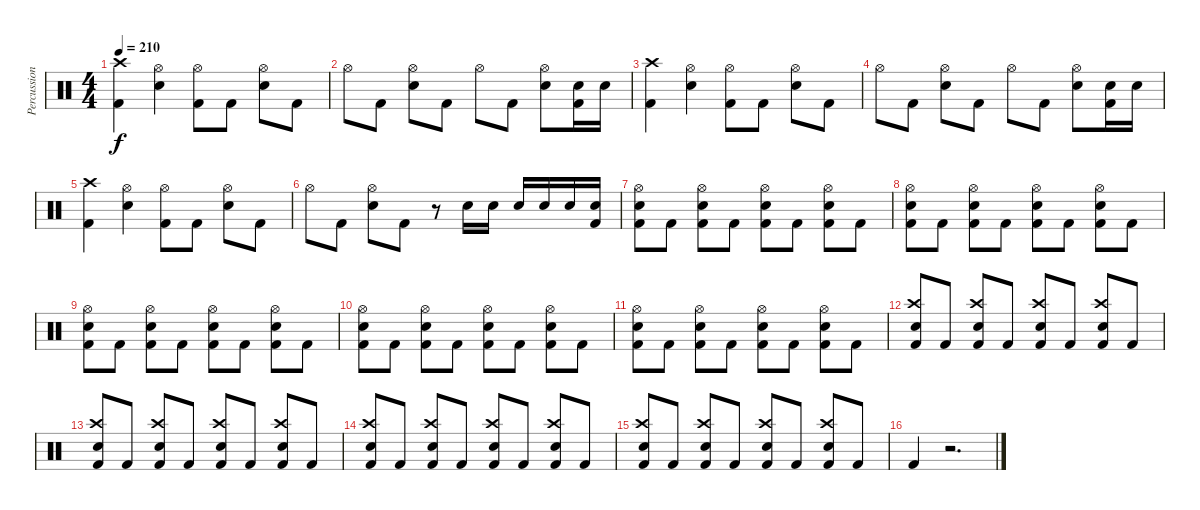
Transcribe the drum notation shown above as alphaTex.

\track ("Percussions" "Percussion") {instrument percussion}
\staff {score}
\articulation defaults
\ts (4 4)
\tempo 210
\clef neutral
\ks c
("Kick (hit) 2" "Crash high (hit)").4{dy f} ("Snare (hit) 2" "Hi-Hat (open)").4 ("Kick (hit) 2" "Hi-Hat (open)").8 "Kick (hit) 2".8 ("Snare (hit) 2" "Hi-Hat (open)").8 "Kick (hit) 2".8 |
"Hi-Hat (open)".8 "Kick (hit) 2".8 ("Snare (hit) 2" "Hi-Hat (open)").8 "Kick (hit) 2".8 "Hi-Hat (open)".8 "Kick (hit) 2".8 ("Snare (hit) 2" "Hi-Hat (open)").8 ("Kick (hit) 2" "Snare (hit) 2").16 "Snare (hit) 2".16 |
("Kick (hit) 2" "Crash high (hit)").4 ("Snare (hit) 2" "Hi-Hat (open)").4 ("Kick (hit) 2" "Hi-Hat (open)").8 "Kick (hit) 2".8 ("Snare (hit) 2" "Hi-Hat (open)").8 "Kick (hit) 2".8 |
"Hi-Hat (open)".8 "Kick (hit) 2".8 ("Snare (hit) 2" "Hi-Hat (open)").8 "Kick (hit) 2".8 "Hi-Hat (open)".8 "Kick (hit) 2".8 ("Snare (hit) 2" "Hi-Hat (open)").8 ("Kick (hit) 2" "Snare (hit) 2").16 "Snare (hit) 2".16 |
("Kick (hit) 2" "Crash high (hit)").4 ("Snare (hit) 2" "Hi-Hat (open)").4 ("Kick (hit) 2" "Hi-Hat (open)").8 "Kick (hit) 2".8 ("Snare (hit) 2" "Hi-Hat (open)").8 "Kick (hit) 2".8 |
"Hi-Hat (open)".8 "Kick (hit) 2".8 ("Snare (hit) 2" "Hi-Hat (open)").8 "Kick (hit) 2".8 r.8 "Snare (hit) 2".16 "Snare (hit) 2".16 "Snare (hit) 2".16 "Snare (hit) 2".16 "Snare (hit) 2".16 ("Kick (hit) 2" "Snare (hit) 2").16 |
("Kick (hit) 2" "Snare (hit) 2" "Hi-Hat (open)").8 "Kick (hit) 2".8 ("Kick (hit) 2" "Snare (hit) 2" "Hi-Hat (open)").8 "Kick (hit) 2".8 ("Kick (hit) 2" "Snare (hit) 2" "Hi-Hat (open)").8 "Kick (hit) 2".8 ("Kick (hit) 2" "Snare (hit) 2" "Hi-Hat (open)").8 "Kick (hit) 2".8 |
("Kick (hit) 2" "Snare (hit) 2" "Hi-Hat (open)").8 "Kick (hit) 2".8 ("Kick (hit) 2" "Snare (hit) 2" "Hi-Hat (open)").8 "Kick (hit) 2".8 ("Kick (hit) 2" "Snare (hit) 2" "Hi-Hat (open)").8 "Kick (hit) 2".8 ("Kick (hit) 2" "Snare (hit) 2" "Hi-Hat (open)").8 "Kick (hit) 2".8 |
("Kick (hit) 2" "Snare (hit) 2" "Hi-Hat (open)").8 "Kick (hit) 2".8 ("Kick (hit) 2" "Snare (hit) 2" "Hi-Hat (open)").8 "Kick (hit) 2".8 ("Kick (hit) 2" "Snare (hit) 2" "Hi-Hat (open)").8 "Kick (hit) 2".8 ("Kick (hit) 2" "Snare (hit) 2" "Hi-Hat (open)").8 "Kick (hit) 2".8 |
("Kick (hit) 2" "Snare (hit) 2" "Hi-Hat (open)").8 "Kick (hit) 2".8 ("Kick (hit) 2" "Snare (hit) 2" "Hi-Hat (open)").8 "Kick (hit) 2".8 ("Kick (hit) 2" "Snare (hit) 2" "Hi-Hat (open)").8 "Kick (hit) 2".8 ("Kick (hit) 2" "Snare (hit) 2" "Hi-Hat (open)").8 "Kick (hit) 2".8 |
("Kick (hit) 2" "Snare (hit) 2" "Hi-Hat (open)").8 "Kick (hit) 2".8 ("Kick (hit) 2" "Snare (hit) 2" "Hi-Hat (open)").8 "Kick (hit) 2".8 ("Kick (hit) 2" "Snare (hit) 2" "Hi-Hat (open)").8 "Kick (hit) 2".8 ("Kick (hit) 2" "Snare (hit) 2" "Hi-Hat (open)").8 "Kick (hit) 2".8 |
("Kick (hit) 2" "Snare (hit) 2" "Crash high (hit)").8 "Kick (hit) 2".8 ("Kick (hit) 2" "Snare (hit) 2" "Crash high (hit)").8 "Kick (hit) 2".8 ("Kick (hit) 2" "Snare (hit) 2" "Crash high (hit)").8 "Kick (hit) 2".8 ("Kick (hit) 2" "Snare (hit) 2" "Crash high (hit)").8 "Kick (hit) 2".8 |
("Kick (hit) 2" "Snare (hit) 2" "Crash high (hit)").8 "Kick (hit) 2".8 ("Kick (hit) 2" "Snare (hit) 2" "Crash high (hit)").8 "Kick (hit) 2".8 ("Kick (hit) 2" "Snare (hit) 2" "Crash high (hit)").8 "Kick (hit) 2".8 ("Kick (hit) 2" "Snare (hit) 2" "Crash high (hit)").8 "Kick (hit) 2".8 |
("Kick (hit) 2" "Snare (hit) 2" "Crash high (hit)").8 "Kick (hit) 2".8 ("Kick (hit) 2" "Snare (hit) 2" "Crash high (hit)").8 "Kick (hit) 2".8 ("Kick (hit) 2" "Snare (hit) 2" "Crash high (hit)").8 "Kick (hit) 2".8 ("Kick (hit) 2" "Snare (hit) 2" "Crash high (hit)").8 "Kick (hit) 2".8 |
("Kick (hit) 2" "Snare (hit) 2" "Crash high (hit)").8 "Kick (hit) 2".8 ("Kick (hit) 2" "Snare (hit) 2" "Crash high (hit)").8 "Kick (hit) 2".8 ("Kick (hit) 2" "Snare (hit) 2" "Crash high (hit)").8 "Kick (hit) 2".8 ("Kick (hit) 2" "Snare (hit) 2" "Crash high (hit)").8 "Kick (hit) 2".8 |
"Kick (hit) 2".4 r.2{d}
